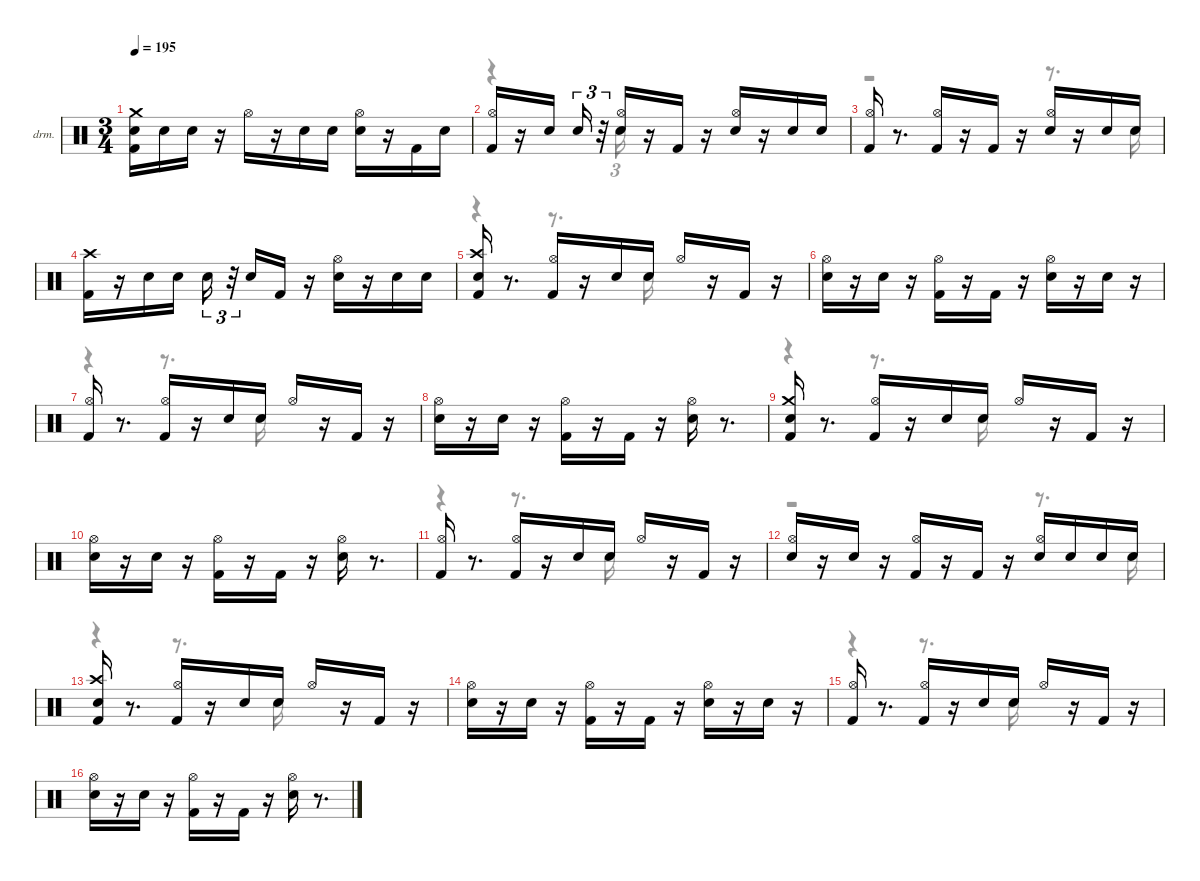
\hideDynamics
\bracketExtendMode nobrackets
\firstSystemTrackNameOrientation horizontal
\otherSystemsTrackNameOrientation horizontal
\track ("EZdrummer 3" "drm.") {instrument percussion}
\staff {score}
\articulation defaults
\voice
\ts (3 4)
\tempo 195
\clef neutral
\ks aminor
("Kick (hit) 2" "Snare (hit) 2" "Crash medium (hit)").16{dy fff beam Down} "Snare (hit) 2".16{dy pp beam Down} "Snare (hit) 2".16{dy ppp beam Down} r.16{beam Down} "Hi-Hat (open)"{acc #}.16{dy mp beam Down} r.16{beam Down} "Snare (hit) 2".16{dy ff beam Down} "Snare (hit) 2".16{dy pp beam Down} ("Snare (hit) 2" "Hi-Hat (open)"{acc #}).16{dy ppp beam Down} r.16{beam Down} "Kick (hit) 2".16{dy p beam Up} "Snare (hit) 2".16{dy ppp beam Up} |
("Kick (hit) 2" "Hi-Hat (open)"{acc #}).16{dy fff beam Up} r.16{beam Up} "Snare (hit) 2".16{dy ff beam Up} "Snare (hit) 2".16{tu (3 2) dy pp beam Up} r.32{tu (3 2) beam Up} ("Snare (hit) 2" "Hi-Hat (open)"{acc #}).16{dy ppp beam Up} r.16{beam Up} "Kick (hit) 2".16{dy f beam Up} r.16{beam Up} ("Snare (hit) 2" "Hi-Hat (open)"{acc #}).16{dy mf beam Up} r.16{beam Up} "Snare (hit) 2".16{dy f beam Up} "Snare (hit) 2".16{dy ppp beam Up} |
("Kick (hit) 2" "Hi-Hat (open)"{acc #}).16{dy fff beam Up} r.8{d beam Up} ("Kick (hit) 2" "Hi-Hat (open)"{acc #}).16{dy mf beam Up} r.16{beam Up} "Kick (hit) 2".16{dy ff beam Up} r.16{beam Up} ("Snare (hit) 2" "Hi-Hat (open)"{acc #}).16{dy mf beam Up} r.16{beam Up} "Snare (hit) 2".16{dy pp beam Up} "Snare (hit) 2".16{dy ppp beam Up} |
("Kick (hit) 2" "Crash high (hit)"{acc #}).16{dy ff beam Down} r.16{beam Down} "Snare (hit) 2".16{dy mf beam Down} "Snare (hit) 2".16{dy p beam Down} "Snare (hit) 2".16{tu (3 2) dy fff beam Down} r.32{tu (3 2) beam Down} "Snare (hit) 2".16{dy ppp beam Up} "Kick (hit) 2".16{dy f beam Up} r.16{beam Up} ("Snare (hit) 2" "Hi-Hat (open)"{acc #}).16{dy fff beam Down} r.16{beam Down} "Snare (hit) 2".16{dy pp beam Down} "Snare (hit) 2".16{dy ppp beam Down} |
("Kick (hit) 2" "Snare (hit) 2" "Crash high (hit)"{acc #}).16{dy mp beam Up} r.8{d beam Up} ("Kick (hit) 2" "Hi-Hat (open)"{acc #}).16{dy mf beam Up} r.16{beam Up} "Snare (hit) 2".16{dy f beam Up} "Snare (hit) 2".16{dy ppp beam Up} "Hi-Hat (open)"{acc #}.16{dy f beam Up} r.16{beam Up} "Kick (hit) 2".16{beam Up} r.16{beam Up} |
("Snare (hit) 2" "Hi-Hat (open)"{acc #}).16{dy ff beam Down} r.16{beam Down} "Snare (hit) 2".16{dy ppp beam Down} r.16{beam Down} ("Kick (hit) 2" "Hi-Hat (open)"{acc #}).16{dy mf beam Down} r.16{beam Down} "Kick (hit) 2".16{dy ff beam Up} r.16{beam Up} ("Snare (hit) 2" "Hi-Hat (open)"{acc #}).16{dy fff beam Down} r.16{beam Down} "Snare (hit) 2".16{dy pp beam Down} r.16{beam Down} |
("Kick (hit) 2" "Hi-Hat (open)"{acc #}).16{dy fff beam Up} r.8{d beam Up} ("Kick (hit) 2" "Hi-Hat (open)"{acc #}).16{dy f beam Up} r.16{beam Up} "Snare (hit) 2".16{beam Up} "Snare (hit) 2".16{dy ppp beam Up} "Hi-Hat (open)"{acc #}.16{dy ff beam Up} r.16{beam Up} "Kick (hit) 2".16{dy f beam Up} r.16{beam Up} |
("Snare (hit) 2" "Hi-Hat (open)"{acc #}).16{dy ff beam Down} r.16{beam Down} "Snare (hit) 2".16{dy ppp beam Down} r.16{beam Down} ("Kick (hit) 2" "Hi-Hat (open)"{acc #}).16{beam Down} r.16{beam Down} "Kick (hit) 2".16{dy ff beam Up} r.16{beam Up} ("Snare (hit) 2" "Hi-Hat (open)"{acc #}).16{beam Down} r.8{d beam Down} |
("Kick (hit) 2" "Snare (hit) 2" "Crash medium (hit)").16{beam Up} r.8{d beam Up} ("Kick (hit) 2" "Hi-Hat (open)"{acc #}).16{dy mf beam Up} r.16{beam Up} "Snare (hit) 2".16{dy f beam Up} "Snare (hit) 2".16{dy ppp beam Up} "Hi-Hat (open)"{acc #}.16{dy f beam Up} r.16{beam Up} "Kick (hit) 2".16{beam Up} r.16{beam Up} |
("Snare (hit) 2" "Hi-Hat (open)"{acc #}).16{dy ff beam Down} r.16{beam Down} "Snare (hit) 2".16{dy ppp beam Down} r.16{beam Down} ("Kick (hit) 2" "Hi-Hat (open)"{acc #}).16{beam Down} r.16{beam Down} "Kick (hit) 2".16{dy ff beam Up} r.16{beam Up} ("Snare (hit) 2" "Hi-Hat (open)"{acc #}).16{dy fff beam Down} r.8{d beam Down} |
("Kick (hit) 2" "Hi-Hat (open)"{acc #}).16{dy ff beam Up} r.8{d beam Up} ("Kick (hit) 2" "Hi-Hat (open)"{acc #}).16{dy mf beam Up} r.16{beam Up} "Snare (hit) 2".16{dy f beam Up} "Snare (hit) 2".16{dy ppp beam Up} "Hi-Hat (open)"{acc #}.16{dy ff beam Up} r.16{beam Up} "Kick (hit) 2".16{dy f beam Up} r.16{beam Up} |
("Snare (hit) 2" "Hi-Hat (open)"{acc #}).16{dy ff beam Up} r.16{beam Up} "Snare (hit) 2".16{dy ppp beam Up} r.16{beam Up} ("Kick (hit) 2" "Hi-Hat (open)"{acc #}).16{dy mf beam Up} r.16{beam Up} "Kick (hit) 2".16{dy ff beam Up} r.16{beam Up} ("Snare (hit) 2" "Hi-Hat (open)"{acc #}).16{dy f beam Up} "Snare (hit) 2".16{dy pp beam Up} "Snare (hit) 2".16{dy ppp beam Up} "Snare (hit) 2".16{beam Up} |
("Snare (hit) 2" "Crash high (hit)"{acc #} "Kick (hit) 2").16{dy ff beam Up} r.8{d beam Up} ("Kick (hit) 2" "Hi-Hat (open)"{acc #}).16{dy mf beam Up} r.16{beam Up} "Snare (hit) 2".16{dy f beam Up} "Snare (hit) 2".16{dy ppp beam Up} "Hi-Hat (open)"{acc #}.16{dy f beam Up} r.16{beam Up} "Kick (hit) 2".16{beam Up} r.16{beam Up} |
("Snare (hit) 2" "Hi-Hat (open)"{acc #}).16{dy ff beam Down} r.16{beam Down} "Snare (hit) 2".16{dy ppp beam Down} r.16{beam Down} ("Kick (hit) 2" "Hi-Hat (open)"{acc #}).16{beam Down} r.16{beam Down} "Kick (hit) 2".16{dy ff beam Up} r.16{beam Up} ("Snare (hit) 2" "Hi-Hat (open)"{acc #}).16{dy fff beam Down} r.16{beam Down} "Snare (hit) 2".16{dy pp beam Down} r.16{beam Down} |
("Kick (hit) 2" "Hi-Hat (open)"{acc #}).16{dy ff beam Up} r.8{d beam Up} ("Kick (hit) 2" "Hi-Hat (open)"{acc #}).16{dy f beam Up} r.16{beam Up} "Snare (hit) 2".16{beam Up} "Snare (hit) 2".16{dy ppp beam Up} "Hi-Hat (open)"{acc #}.16{dy ff beam Up} r.16{beam Up} "Kick (hit) 2".16{dy f beam Up} r.16{beam Up} |
("Snare (hit) 2" "Hi-Hat (open)"{acc #}).16{dy ff beam Down} r.16{beam Down} "Snare (hit) 2".16{dy ppp beam Down} r.16{beam Down} ("Kick (hit) 2" "Hi-Hat (open)"{acc #}).16{dy f beam Down} r.16{beam Down} "Kick (hit) 2".16{dy ff beam Up} r.16{beam Up} ("Snare (hit) 2" "Hi-Hat (open)"{acc #}).16{beam Down} r.8{d beam Down}
\voice
\clef neutral
\ottava regular
\simile none
\ks aminor
|
r.4{beam Down} "Snare (hit) 2".16{tu (3 2) beam Down} |
r.2{beam Down} r.8{d beam Down} "Snare (hit) 2".16{beam Down} |
|
r.4{beam Down} r.8{d beam Down} "Snare (hit) 2".16{dy pp beam Down} |
|
r.4{beam Down} r.8{d beam Down} "Snare (hit) 2".16{beam Down} |
|
r.4{beam Down} r.8{d beam Down} "Snare (hit) 2".16{beam Down} |
|
r.4{beam Down} r.8{d beam Down} "Snare (hit) 2".16{beam Down} |
r.2{beam Down} r.8{d beam Down} "Snare (hit) 2".16{dy ppp beam Down} |
r.4{beam Down} r.8{d beam Down} "Snare (hit) 2".16{dy pp beam Down} |
|
r.4{beam Down} r.8{d beam Down} "Snare (hit) 2".16{beam Down} |
